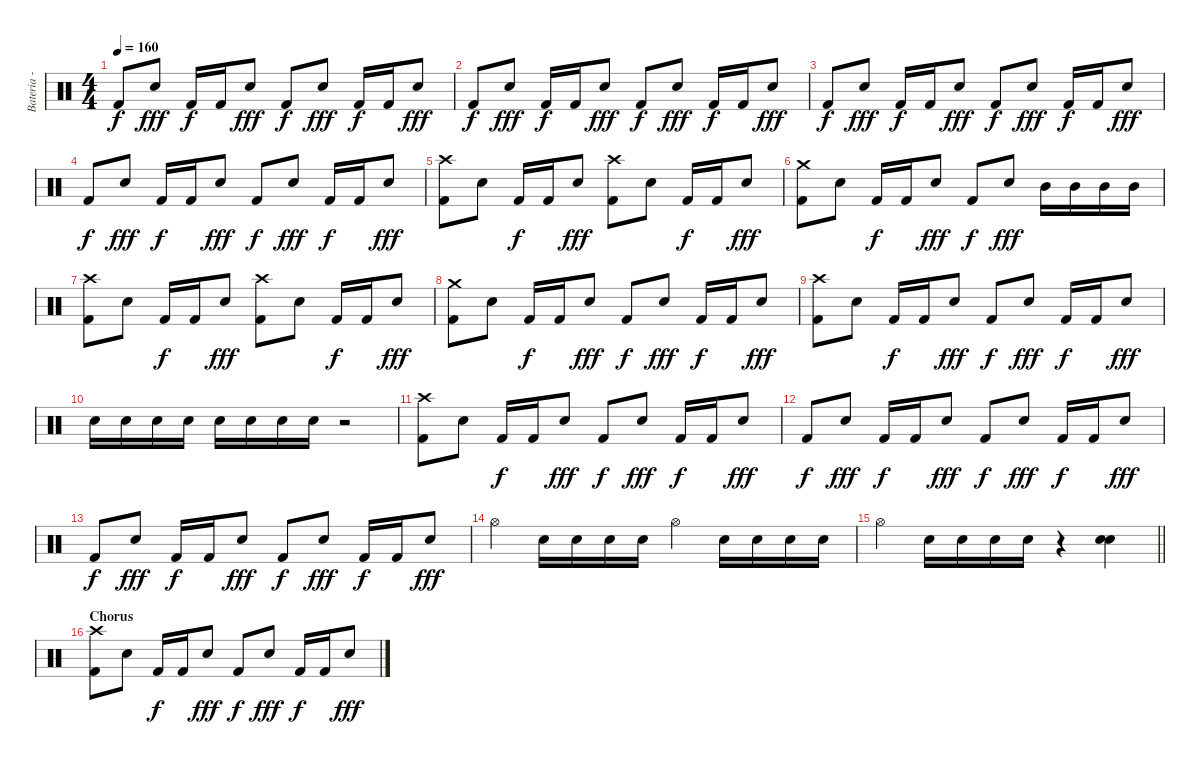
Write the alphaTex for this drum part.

\track ("Bateria - Larzon" "Bateria - ") {instrument percussion}
\staff {score}
\articulation defaults
\ts (4 4)
\tempo 160
\clef neutral
\ks c "Kick (hit) 2".8{dy f} "Snare (hit) 2".8{dy fff} "Kick (hit) 2".16{dy f} "Kick (hit) 2".16 "Snare (hit) 2".8{dy fff} "Kick (hit) 2".8{dy f} "Snare (hit) 2".8{dy fff} "Kick (hit) 2".16{dy f} "Kick (hit) 2".16 "Snare (hit) 2".8{dy fff}
|
"Kick (hit) 2".8{dy f} "Snare (hit) 2".8{dy fff} "Kick (hit) 2".16{dy f} "Kick (hit) 2".16 "Snare (hit) 2".8{dy fff} "Kick (hit) 2".8{dy f} "Snare (hit) 2".8{dy fff} "Kick (hit) 2".16{dy f} "Kick (hit) 2".16 "Snare (hit) 2".8{dy fff} |
"Kick (hit) 2".8{dy f} "Snare (hit) 2".8{dy fff} "Kick (hit) 2".16{dy f} "Kick (hit) 2".16 "Snare (hit) 2".8{dy fff} "Kick (hit) 2".8{dy f} "Snare (hit) 2".8{dy fff} "Kick (hit) 2".16{dy f} "Kick (hit) 2".16 "Snare (hit) 2".8{dy fff} |
"Kick (hit) 2".8{dy f} "Snare (hit) 2".8{dy fff} "Kick (hit) 2".16{dy f} "Kick (hit) 2".16 "Snare (hit) 2".8{dy fff} "Kick (hit) 2".8{dy f} "Snare (hit) 2".8{dy fff} "Kick (hit) 2".16{dy f} "Kick (hit) 2".16 "Snare (hit) 2".8{dy fff} |
("Kick (hit) 2" "Crash high (hit)").8 "Snare (hit) 2".8 "Kick (hit) 2".16{dy f} "Kick (hit) 2".16 "Snare (hit) 2".8{dy fff} ("Kick (hit) 2" "Crash high (hit)").8 "Snare (hit) 2".8 "Kick (hit) 2".16{dy f} "Kick (hit) 2".16 "Snare (hit) 2".8{dy fff} |
("Kick (hit) 2" "Crash medium (hit)").8 "Snare (hit) 2".8 "Kick (hit) 2".16{dy f} "Kick (hit) 2".16 "Snare (hit) 2".8{dy fff} "Kick (hit) 2".8{dy f} "Snare (hit) 2".8{dy fff} "Mid Tom (hit)".16 "Mid Tom (hit)".16 "Mid Tom (hit)".16 "Mid Tom (hit)".16 |
("Kick (hit) 2" "Crash high (hit)").8 "Snare (hit) 2".8 "Kick (hit) 2".16{dy f} "Kick (hit) 2".16 "Snare (hit) 2".8{dy fff} ("Kick (hit) 2" "Crash high (hit)").8 "Snare (hit) 2".8 "Kick (hit) 2".16{dy f} "Kick (hit) 2".16 "Snare (hit) 2".8{dy fff} |
("Kick (hit) 2" "Crash medium (hit)").8 "Snare (hit) 2".8 "Kick (hit) 2".16{dy f} "Kick (hit) 2".16 "Snare (hit) 2".8{dy fff} "Kick (hit) 2".8{dy f} "Snare (hit) 2".8{dy fff} "Kick (hit) 2".16{dy f} "Kick (hit) 2".16 "Snare (hit) 2".8{dy fff} |
("Kick (hit) 2" "Crash high (hit)").8 "Snare (hit) 2".8 "Kick (hit) 2".16{dy f} "Kick (hit) 2".16 "Snare (hit) 2".8{dy fff} "Kick (hit) 2".8{dy f} "Snare (hit) 2".8{dy fff} "Kick (hit) 2".16{dy f} "Kick (hit) 2".16 "Snare (hit) 2".8{dy fff} |
"Snare (hit) 2".16 "Snare (hit) 2".16 "Snare (hit) 2".16 "Snare (hit) 2".16 "Snare (hit) 2".16 "Snare (hit) 2".16 "Snare (hit) 2".16 "Snare (hit) 2".16 r.2 |
("Kick (hit) 2" "Crash high (hit)").8 "Snare (hit) 2".8 "Kick (hit) 2".16{dy f} "Kick (hit) 2".16 "Snare (hit) 2".8{dy fff} "Kick (hit) 2".8{dy f} "Snare (hit) 2".8{dy fff} "Kick (hit) 2".16{dy f} "Kick (hit) 2".16 "Snare (hit) 2".8{dy fff} |
"Kick (hit) 2".8{dy f} "Snare (hit) 2".8{dy fff} "Kick (hit) 2".16{dy f} "Kick (hit) 2".16 "Snare (hit) 2".8{dy fff} "Kick (hit) 2".8{dy f} "Snare (hit) 2".8{dy fff} "Kick (hit) 2".16{dy f} "Kick (hit) 2".16 "Snare (hit) 2".8{dy fff} |
"Kick (hit) 2".8{dy f} "Snare (hit) 2".8{dy fff} "Kick (hit) 2".16{dy f} "Kick (hit) 2".16 "Snare (hit) 2".8{dy fff} "Kick (hit) 2".8{dy f} "Snare (hit) 2".8{dy fff} "Kick (hit) 2".16{dy f} "Kick (hit) 2".16 "Snare (hit) 2".8{dy fff} |
"Hi-Hat (open)".4 "Snare (hit) 2".16 "Snare (hit) 2".16 "Snare (hit) 2".16 "Snare (hit) 2".16 "Hi-Hat (open)".4 "Snare (hit) 2".16 "Snare (hit) 2".16 "Snare (hit) 2".16 "Snare (hit) 2".16 |
\barLineRight lightlight "Hi-Hat (open)".4 "Snare (hit) 2".16 "Snare (hit) 2".16 "Snare (hit) 2".16 "Snare (hit) 2".16
r.4 ("Snare (hit) 2" "Snare (hit) 2").4 |
\section ("" "Chorus")
("Kick (hit) 2" "Crash high (hit)").8 "Snare (hit) 2".8 "Kick (hit) 2".16{dy f} "Kick (hit) 2".16 "Snare (hit) 2".8{dy fff} "Kick (hit) 2".8{dy f} "Snare (hit) 2".8{dy fff} "Kick (hit) 2".16{dy f} "Kick (hit) 2".16 "Snare (hit) 2".8{dy fff}
